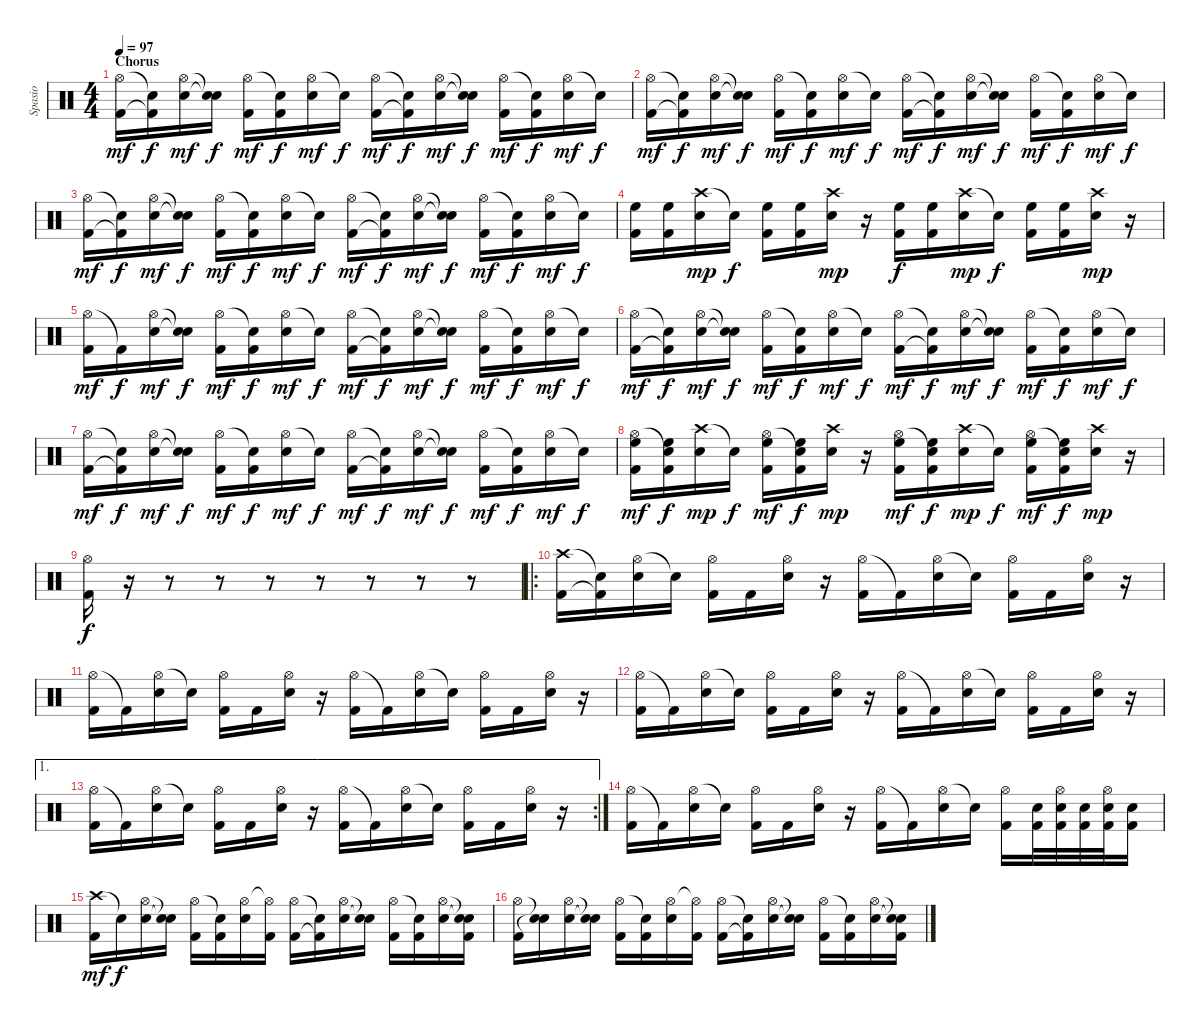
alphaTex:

\track ("Spasio" "Spasio") {instrument percussion}
\staff {score}
\articulation defaults
\ts (4 4)
\section ("" "Chorus")
\tempo 97
\clef neutral
\ks c
("Hi-Hat (open)" "Kick (hit) 2").16{dy mf} ("Snare (hit)"{t} "Kick (hit) 2"{t}).16{dy f} ("Hi-Hat (open)" "Electric Snare (hit)").16{dy mf} ("Snare (hit)"{t} "Snare (hit)"{t}).16{dy f} ("Hi-Hat (open)" "Kick (hit) 2").16{dy mf} ("Snare (hit)"{t} "Kick (hit) 2").16{dy f} ("Hi-Hat (open)" "Electric Snare (hit)").16{dy mf} "Snare (hit)"{t}.16{dy f} ("Hi-Hat (open)" "Kick (hit) 2").16{dy mf} ("Snare (hit)"{t} "Kick (hit) 2"{t}).16{dy f} ("Hi-Hat (open)" "Electric Snare (hit)").16{dy mf} ("Snare (hit)"{t} "Electric Snare (hit)"{t}).16{dy f} ("Hi-Hat (open)" "Kick (hit) 2").16{dy mf} ("Snare (hit)"{t} "Kick (hit) 2").16{dy f} ("Hi-Hat (open)" "Electric Snare (hit)").16{dy mf} "Snare (hit)"{t}.16{dy f} |
("Hi-Hat (open)" "Kick (hit) 2").16{dy mf} ("Snare (hit)"{t} "Kick (hit) 2"{t}).16{dy f} ("Hi-Hat (open)" "Electric Snare (hit)").16{dy mf} ("Snare (hit)"{t} "Snare (hit)"{t}).16{dy f} ("Hi-Hat (open)" "Kick (hit) 2").16{dy mf} ("Snare (hit)"{t} "Kick (hit) 2").16{dy f} ("Hi-Hat (open)" "Electric Snare (hit)").16{dy mf} "Snare (hit)"{t}.16{dy f} ("Hi-Hat (open)" "Kick (hit) 2").16{dy mf} ("Snare (hit)"{t} "Kick (hit) 2"{t}).16{dy f} ("Hi-Hat (open)" "Electric Snare (hit)").16{dy mf} ("Snare (hit)"{t} "Electric Snare (hit)"{t}).16{dy f} ("Hi-Hat (open)" "Kick (hit) 2").16{dy mf} ("Snare (hit)"{t} "Kick (hit) 2").16{dy f} ("Hi-Hat (open)" "Electric Snare (hit)").16{dy mf} "Snare (hit)"{t}.16{dy f} |
("Hi-Hat (open)" "Kick (hit) 2").16{dy mf} ("Snare (hit)"{t} "Kick (hit) 2"{t}).16{dy f} ("Hi-Hat (open)" "Electric Snare (hit)").16{dy mf} ("Snare (hit)"{t} "Snare (hit)"{t}).16{dy f} ("Hi-Hat (open)" "Kick (hit) 2").16{dy mf} ("Snare (hit)"{t} "Kick (hit) 2").16{dy f} ("Hi-Hat (open)" "Electric Snare (hit)").16{dy mf} "Snare (hit)"{t}.16{dy f} ("Hi-Hat (open)" "Kick (hit) 2").16{dy mf} ("Snare (hit)"{t} "Kick (hit) 2"{t}).16{dy f} ("Hi-Hat (open)" "Electric Snare (hit)").16{dy mf} ("Snare (hit)"{t} "Electric Snare (hit)"{t}).16{dy f} ("Hi-Hat (open)" "Kick (hit) 2").16{dy mf} ("Snare (hit)"{t} "Kick (hit) 2").16{dy f} ("Hi-Hat (open)" "Electric Snare (hit)").16{dy mf} "Snare (hit)"{t}.16{dy f} |
("High Floor Tom (hit)" "Kick (hit) 2").16 ("High Floor Tom (hit)" "Kick (hit) 2").16 ("Crash high (hit)" "Electric Snare (hit)").16{dy mp} "Snare (hit)"{t}.16{dy f} ("High Floor Tom (hit)" "Kick (hit) 2").16 ("High Floor Tom (hit)" "Kick (hit) 2").16 ("Crash high (hit)" "Electric Snare (hit)").16{dy mp} r.16 ("High Floor Tom (hit)" "Kick (hit) 2").16{dy f} ("High Floor Tom (hit)" "Kick (hit) 2").16 ("Crash high (hit)" "Electric Snare (hit)").16{dy mp} "Snare (hit)"{t}.16{dy f} ("High Floor Tom (hit)" "Kick (hit) 2").16 ("High Floor Tom (hit)" "Kick (hit) 2").16 ("Crash high (hit)" "Electric Snare (hit)").16{dy mp} r.16 |
("Hi-Hat (open)" "Kick (hit) 2").16{dy mf} "Kick (hit) 2"{t}.16{dy f} ("Hi-Hat (open)" "Electric Snare (hit)").16{dy mf} ("Snare (hit)"{t} "Snare (hit)"{t}).16{dy f} ("Hi-Hat (open)" "Kick (hit) 2").16{dy mf} ("Snare (hit)"{t} "Kick (hit) 2").16{dy f} ("Hi-Hat (open)" "Electric Snare (hit)").16{dy mf} "Snare (hit)"{t}.16{dy f} ("Hi-Hat (open)" "Kick (hit) 2").16{dy mf} ("Snare (hit)"{t} "Kick (hit) 2"{t}).16{dy f} ("Hi-Hat (open)" "Electric Snare (hit)").16{dy mf} ("Snare (hit)"{t} "Electric Snare (hit)"{t}).16{dy f} ("Hi-Hat (open)" "Kick (hit) 2").16{dy mf} ("Snare (hit)"{t} "Kick (hit) 2").16{dy f} ("Hi-Hat (open)" "Electric Snare (hit)").16{dy mf} "Snare (hit)"{t}.16{dy f} |
("Hi-Hat (open)" "Kick (hit) 2").16{dy mf} ("Snare (hit)"{t} "Kick (hit) 2"{t}).16{dy f} ("Hi-Hat (open)" "Electric Snare (hit)").16{dy mf} ("Snare (hit)"{t} "Snare (hit)"{t}).16{dy f} ("Hi-Hat (open)" "Kick (hit) 2").16{dy mf} ("Snare (hit)"{t} "Kick (hit) 2").16{dy f} ("Hi-Hat (open)" "Electric Snare (hit)").16{dy mf} "Snare (hit)"{t}.16{dy f} ("Hi-Hat (open)" "Kick (hit) 2").16{dy mf} ("Snare (hit)"{t} "Kick (hit) 2"{t}).16{dy f} ("Hi-Hat (open)" "Electric Snare (hit)").16{dy mf} ("Snare (hit)"{t} "Electric Snare (hit)"{t}).16{dy f} ("Hi-Hat (open)" "Kick (hit) 2").16{dy mf} ("Snare (hit)"{t} "Kick (hit) 2").16{dy f} ("Hi-Hat (open)" "Electric Snare (hit)").16{dy mf} "Snare (hit)"{t}.16{dy f} |
("Hi-Hat (open)" "Kick (hit) 2").16{dy mf} ("Snare (hit)"{t} "Kick (hit) 2"{t}).16{dy f} ("Hi-Hat (open)" "Electric Snare (hit)").16{dy mf} ("Snare (hit)"{t} "Snare (hit)"{t}).16{dy f} ("Hi-Hat (open)" "Kick (hit) 2").16{dy mf} ("Snare (hit)"{t} "Kick (hit) 2").16{dy f} ("Hi-Hat (open)" "Electric Snare (hit)").16{dy mf} "Snare (hit)"{t}.16{dy f} ("Hi-Hat (open)" "Kick (hit) 2").16{dy mf} ("Snare (hit)"{t} "Kick (hit) 2"{t}).16{dy f} ("Hi-Hat (open)" "Electric Snare (hit)").16{dy mf} ("Snare (hit)"{t} "Electric Snare (hit)"{t}).16{dy f} ("Hi-Hat (open)" "Kick (hit) 2").16{dy mf} ("Snare (hit)"{t} "Kick (hit) 2").16{dy f} ("Hi-Hat (open)" "Electric Snare (hit)").16{dy mf} "Snare (hit)"{t}.16{dy f} |
("Hi-Hat (open)" "High Floor Tom (hit)" "Kick (hit) 2").16{dy mf} ("Snare (hit)"{t} "High Floor Tom (hit)" "Kick (hit) 2").16{dy f} ("Crash high (hit)" "Electric Snare (hit)").16{dy mp} "Snare (hit)"{t}.16{dy f} ("Hi-Hat (open)" "High Floor Tom (hit)" "Kick (hit) 2").16{dy mf} ("Snare (hit)"{t} "High Floor Tom (hit)" "Kick (hit) 2").16{dy f} ("Crash high (hit)" "Electric Snare (hit)").16{dy mp} r.16 ("Hi-Hat (open)" "High Floor Tom (hit)" "Kick (hit) 2").16{dy mf} ("Snare (hit)"{t} "High Floor Tom (hit)" "Kick (hit) 2").16{dy f} ("Crash high (hit)" "Electric Snare (hit)").16{dy mp} "Electric Snare (hit)"{t}.16{dy f} ("Hi-Hat (open)" "High Floor Tom (hit)" "Kick (hit) 2").16{dy mf} ("Snare (hit)"{t} "High Floor Tom (hit)" "Kick (hit) 2").16{dy f} ("Crash high (hit)" "Electric Snare (hit)").16{dy mp} r.16 |
("Hi-Hat (open)" "Kick (hit) 2").16{dy f} r.16 r.8 r.8 r.8 r.8 r.8 r.8 r.8 |
\ro
("Crash high (hit)" "Kick (hit) 2").16 ("Snare (hit)"{t} "Kick (hit) 2"{t}).16 ("Hi-Hat (open)" "Electric Snare (hit)").16 "Snare (hit)"{t}.16 ("Hi-Hat (open)" "Kick (hit) 2").16 "Kick (hit) 2".16 ("Hi-Hat (open)" "Electric Snare (hit)").16 r.16 ("Hi-Hat (open)" "Kick (hit) 2").16 "Kick (hit) 2"{t}.16 ("Hi-Hat (open)" "Electric Snare (hit)").16 "Electric Snare (hit)"{t}.16 ("Hi-Hat (open)" "Kick (hit) 2").16 "Kick (hit) 2".16 ("Hi-Hat (open)" "Electric Snare (hit)").16 r.16 |
("Hi-Hat (open)" "Kick (hit) 2").16 "Kick (hit) 2"{t}.16 ("Hi-Hat (open)" "Electric Snare (hit)").16 "Snare (hit)"{t}.16 ("Hi-Hat (open)" "Kick (hit) 2").16 "Kick (hit) 2".16 ("Hi-Hat (open)" "Electric Snare (hit)").16 r.16 ("Hi-Hat (open)" "Kick (hit) 2").16 "Kick (hit) 2"{t}.16 ("Hi-Hat (open)" "Electric Snare (hit)").16 "Electric Snare (hit)"{t}.16 ("Hi-Hat (open)" "Kick (hit) 2").16 "Kick (hit) 2".16 ("Hi-Hat (open)" "Electric Snare (hit)").16 r.16 |
("Hi-Hat (open)" "Kick (hit) 2").16 "Kick (hit) 2"{t}.16 ("Hi-Hat (open)" "Electric Snare (hit)").16 "Snare (hit)"{t}.16 ("Hi-Hat (open)" "Kick (hit) 2").16 "Kick (hit) 2".16 ("Hi-Hat (open)" "Electric Snare (hit)").16 r.16 ("Hi-Hat (open)" "Kick (hit) 2").16 "Kick (hit) 2"{t}.16 ("Hi-Hat (open)" "Electric Snare (hit)").16 "Electric Snare (hit)"{t}.16 ("Hi-Hat (open)" "Kick (hit) 2").16 "Kick (hit) 2".16 ("Hi-Hat (open)" "Electric Snare (hit)").16 r.16 |
\ae 1
\rc 2
("Hi-Hat (open)" "Kick (hit) 2").16 "Kick (hit) 2"{t}.16 ("Hi-Hat (open)" "Electric Snare (hit)").16 "Snare (hit)"{t}.16 ("Hi-Hat (open)" "Kick (hit) 2").16 "Kick (hit) 2".16 ("Hi-Hat (open)" "Electric Snare (hit)").16 r.16 ("Hi-Hat (open)" "Kick (hit) 2").16 "Kick (hit) 2"{t}.16 ("Hi-Hat (open)" "Electric Snare (hit)").16 "Electric Snare (hit)"{t}.16 ("Hi-Hat (open)" "Kick (hit) 2").16 "Kick (hit) 2".16 ("Hi-Hat (open)" "Electric Snare (hit)").16 r.16 |
("Hi-Hat (open)" "Kick (hit) 2").16 "Kick (hit) 2"{t}.16 ("Hi-Hat (open)" "Electric Snare (hit)").16 "Snare (hit)"{t}.16 ("Hi-Hat (open)" "Kick (hit) 2").16 "Kick (hit) 2".16 ("Hi-Hat (open)" "Electric Snare (hit)").16 r.16 ("Hi-Hat (open)" "Kick (hit) 2").16 "Kick (hit) 2"{t}.16 ("Hi-Hat (open)" "Electric Snare (hit)").16 "Electric Snare (hit)"{t}.16 ("Hi-Hat (open)" "Kick (hit) 2").16 ("Electric Snare (hit)" "Kick (hit) 2").32 ("Hi-Hat (open)" "Electric Snare (hit)" "Kick (hit) 2").32 ("Electric Snare (hit)" "Kick (hit) 2").32 ("Hi-Hat (open)" "Electric Snare (hit)" "Kick (hit) 2").32 ("Electric Snare (hit)" "Kick (hit) 2").16 |
("Crash high (hit)" "Kick (hit) 2").16{dy mf} "Snare (hit)"{t}.16{dy f} ("Hi-Hat (open)" "Electric Snare (hit)").16 ("Snare (hit)"{t} "Snare (hit)"{t}).16 ("Hi-Hat (open)" "Kick (hit) 2").16 ("Snare (hit)"{t} "Kick (hit) 2").16 ("Hi-Hat (open)" "Electric Snare (hit)").16 ("Hi-Hat (open)"{t} "Kick (hit) 2").16 ("Hi-Hat (open)" "Kick (hit) 2").16 ("Snare (hit)"{t} "Kick (hit) 2"{t}).16 ("Hi-Hat (open)" "Electric Snare (hit)").16 ("Snare (hit)"{t} "Electric Snare (hit)"{t}).16 ("Hi-Hat (open)" "Kick (hit) 2").16 ("Snare (hit)"{t} "Kick (hit) 2").16 ("Hi-Hat (open)" "Electric Snare (hit)").16 ("Snare (hit)"{t} "Snare (hit)"{t} "Kick (hit) 2").16 |
("Hi-Hat (open)" "Kick (hit) 2").16 ("Snare (hit)"{t} "Snare (hit)"{t}).16 ("Hi-Hat (open)" "Electric Snare (hit)").16 ("Snare (hit)"{t} "Snare (hit)"{t}).16 ("Hi-Hat (open)" "Kick (hit) 2").16 ("Snare (hit)"{t} "Kick (hit) 2").16 ("Hi-Hat (open)" "Electric Snare (hit)").16 ("Hi-Hat (open)"{t} "Kick (hit) 2").16 ("Hi-Hat (open)" "Kick (hit) 2").16 ("Snare (hit)"{t} "Kick (hit) 2"{t}).16 ("Hi-Hat (open)" "Electric Snare (hit)").16 ("Snare (hit)"{t} "Electric Snare (hit)"{t}).16 ("Hi-Hat (open)" "Kick (hit) 2").16 ("Snare (hit)"{t} "Kick (hit) 2").16 ("Hi-Hat (open)" "Electric Snare (hit)").16 ("Snare (hit)"{t} "Snare (hit)"{t} "Kick (hit) 2").16
